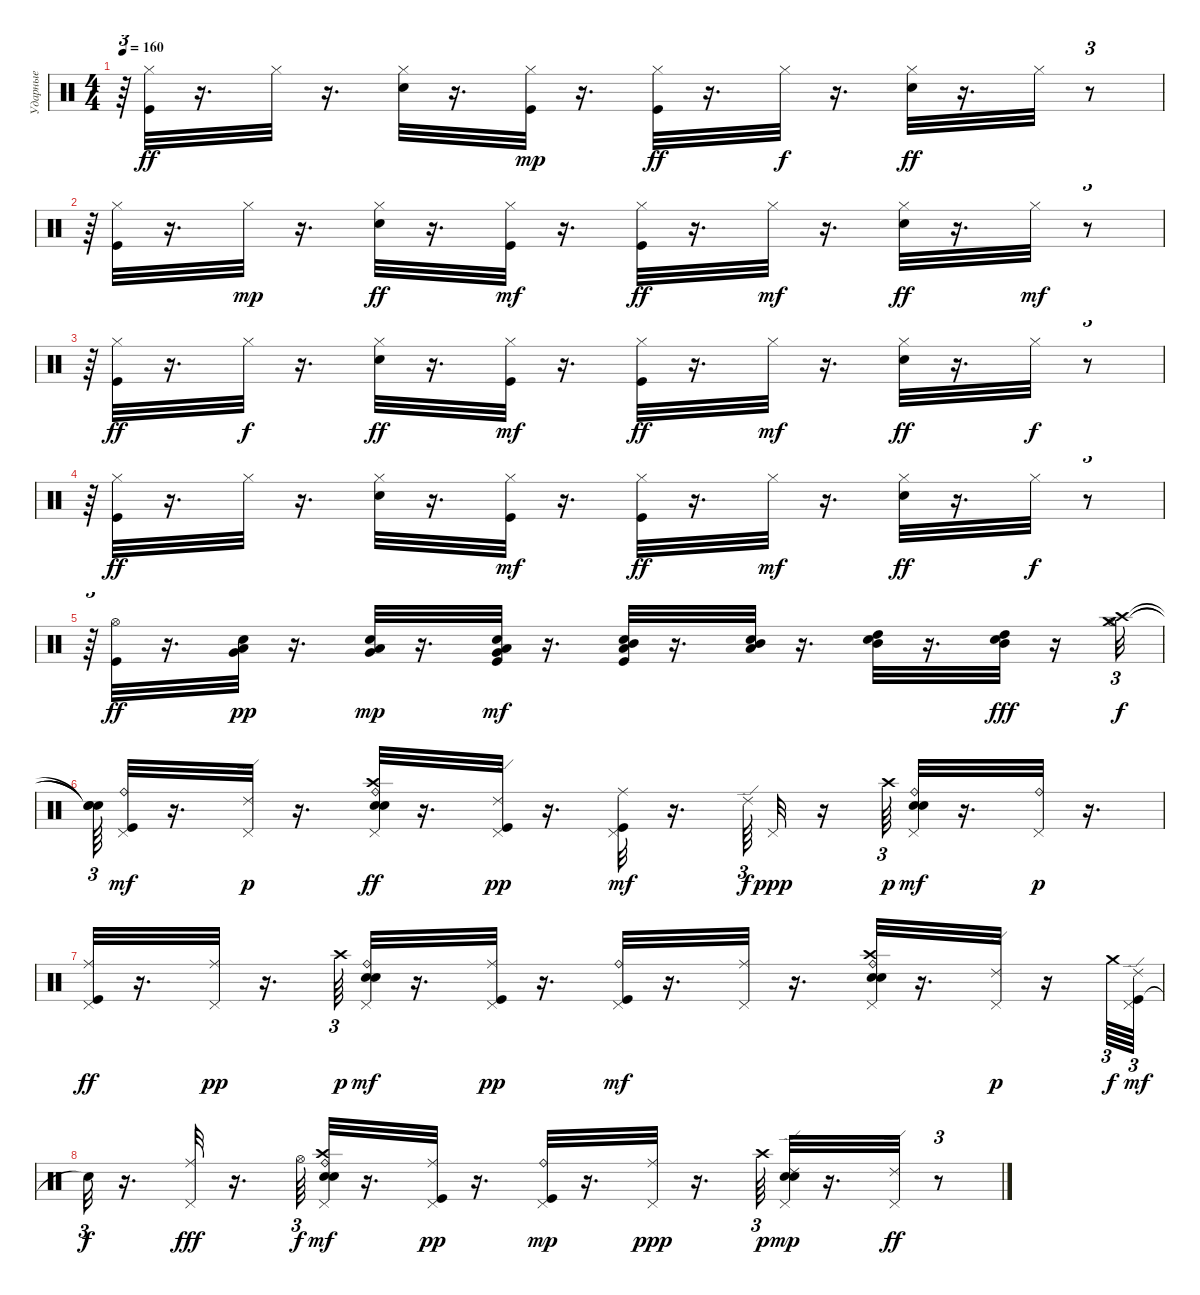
\track ("Ударные" "Ударные") {instrument percussion}
\staff {score}
\articulation defaults
\ts (4 4)
\tempo 160
\clef neutral
\ks c
r.64{tu (3 2) dy f} ("Kick (hit)" "Hi-Hat (closed)").32{dy ff} r.16{d} "Hi-Hat (closed)".32 r.16{d} ("Hi-Hat (closed)" "Electric Snare (hit)").32 r.16{d} ("Kick (hit)" "Hi-Hat (closed)").32{dy mp} r.16{d} ("Kick (hit)" "Hi-Hat (closed)").32{dy ff} r.16{d} "Hi-Hat (closed)".32{dy f} r.16{d} ("Hi-Hat (closed)" "Electric Snare (hit)").32{dy ff} r.16{d} "Hi-Hat (closed)".32 r.8{tu (3 2)} |
r.64{tu (3 2)} ("Kick (hit)" "Hi-Hat (closed)").32 r.16{d} "Hi-Hat (closed)".32{dy mp} r.16{d} ("Hi-Hat (closed)" "Electric Snare (hit)").32{dy ff} r.16{d} ("Kick (hit)" "Hi-Hat (closed)").32{dy mf} r.16{d} ("Kick (hit)" "Hi-Hat (closed)").32{dy ff} r.16{d} "Hi-Hat (closed)".32{dy mf} r.16{d} ("Hi-Hat (closed)" "Electric Snare (hit)").32{dy ff} r.16{d} "Hi-Hat (closed)".32{dy mf} r.8{tu (3 2)} |
r.64{tu (3 2)} ("Kick (hit)" "Hi-Hat (closed)").32{dy ff} r.16{d} "Hi-Hat (closed)".32{dy f} r.16{d} ("Hi-Hat (closed)" "Electric Snare (hit)").32{dy ff} r.16{d} ("Kick (hit)" "Hi-Hat (closed)").32{dy mf} r.16{d} ("Kick (hit)" "Hi-Hat (closed)").32{dy ff} r.16{d} "Hi-Hat (closed)".32{dy mf} r.16{d} ("Hi-Hat (closed)" "Electric Snare (hit)").32{dy ff} r.16{d} "Hi-Hat (closed)".32{dy f} r.8{tu (3 2)} |
r.64{tu (3 2)} ("Kick (hit)" "Hi-Hat (closed)").32{dy ff} r.16{d} "Hi-Hat (closed)".32 r.16{d} ("Hi-Hat (closed)" "Electric Snare (hit)").32 r.16{d} ("Kick (hit)" "Hi-Hat (closed)").32{dy mf} r.16{d} ("Kick (hit)" "Hi-Hat (closed)").32{dy ff} r.16{d} "Hi-Hat (closed)".32{dy mf} r.16{d} ("Hi-Hat (closed)" "Electric Snare (hit)").32{dy ff} r.16{d} "Hi-Hat (closed)".32{dy f} r.8{tu (3 2)} |
r.64{tu (3 2)} ("Kick (hit)" "Hi-Hat (open)").32{dy ff} r.16{d} ("Electric Snare (hit)" "Low Tom (hit)" "Very Low Tom (hit)").32{dy pp} r.16{d} ("Electric Snare (hit)" "Low Tom (hit)" "Very Low Tom (hit)").32{dy mp} r.16{d} ("Kick (hit)" "Electric Snare (hit)" "Low Tom (hit)" "Very Low Tom (hit)").32{dy mf} r.16{d} ("Kick (hit)" "Electric Snare (hit)" "Mid Tom (hit)" "Low Tom (hit)").32 r.16{d} ("Electric Snare (hit)" "Mid Tom (hit)" "Low Tom (hit)").32 r.16{d} ("Electric Snare (hit)" "High Tom (hit)" "Mid Tom (hit)").32 r.16{d} ("Electric Snare (hit)" "High Tom (hit)" "Mid Tom (hit)").32{dy fff} r.16 ("Crash high (hit)" "Crash medium (hit)" "Hi-Hat (open)").32{tu (3 2) dy f} |
("Snare (hit)"{t} "Snare (hit)"{t} "Snare (hit)"{t}).64{tu (3 2)} ("Kick (hit)" "Ride (bell)" "Pedal Hi-Hat (hit)").32{dy mf} r.16{d} ("Ride (edge) 2" "Pedal Hi-Hat (hit)").32{dy p} r.16{d} ("Electric Snare (hit)" "Crash high (hit)" "Snare (hit) 2" "Ride (bell)" "Pedal Hi-Hat (hit)").32{dy ff} r.16{d} ("Kick (hit)" "Ride (edge) 2" "Pedal Hi-Hat (hit)").32{dy pp} r.16{d} ("Kick (hit)" "Ride (middle)" "Pedal Hi-Hat (hit)").32{dy mf} r.16{d} "Ride (edge) 2".64{tu (3 2) dy f} "Pedal Hi-Hat (hit)".32{dy ppp} r.16 "Crash high (hit)".64{tu (3 2) dy p} ("Electric Snare (hit)" "Snare (hit) 2" "Ride (bell)" "Pedal Hi-Hat (hit)").32{dy mf} r.16{d} ("Ride (bell)" "Pedal Hi-Hat (hit)").32{dy p} r.16{d} |
("Kick (hit)" "Ride (middle)" "Pedal Hi-Hat (hit)").32{dy ff} r.16{d} ("Ride (middle)" "Pedal Hi-Hat (hit)").32{dy pp} r.16{d} "Crash high (hit)".64{tu (3 2) dy p} ("Electric Snare (hit)" "Snare (hit) 2" "Ride (bell)" "Pedal Hi-Hat (hit)").32{dy mf} r.16{d} ("Kick (hit)" "Ride (middle)" "Pedal Hi-Hat (hit)").32{dy pp} r.16{d} ("Kick (hit)" "Ride (bell)" "Pedal Hi-Hat (hit)").32{dy mf} r.16{d} ("Pedal Hi-Hat (hit)" "Ride (middle)").32 r.16{d} ("Electric Snare (hit)" "Crash high (hit)" "Snare (hit) 2" "Ride (bell)" "Pedal Hi-Hat (hit)").32 r.16{d} ("Ride (edge) 2" "Pedal Hi-Hat (hit)").32{dy p} r.16 "Crash medium (hit)".64{tu (3 2) dy f} ("Kick (hit)" "Ride (edge) 2" "Pedal Hi-Hat (hit)").64{tu (3 2) dy mf} |
"Snare (hit)"{t}.32{tu (3 2) dy f} r.16{d} ("Pedal Hi-Hat (hit)" "Ride (middle)").32{dy fff} r.16{d} "Hi-Hat (open)".64{tu (3 2) dy f} ("Electric Snare (hit)" "Crash high (hit)" "Snare (hit) 2" "Ride (bell)" "Pedal Hi-Hat (hit)").32{dy mf} r.16{d} ("Kick (hit)" "Ride (middle)" "Pedal Hi-Hat (hit)").32{dy pp} r.16{d} ("Kick (hit)" "Ride (bell)" "Pedal Hi-Hat (hit)").32{dy mp} r.16{d} ("Ride (middle)" "Pedal Hi-Hat (hit)").32{dy ppp} r.16{d} "Crash high (hit)".64{tu (3 2) dy p} ("Electric Snare (hit)" "Snare (hit) 2" "Ride (edge) 2" "Pedal Hi-Hat (hit)").32{dy mp} r.16{d} ("Pedal Hi-Hat (hit)" "Ride (edge) 2").32{dy ff} r.8{tu (3 2)}
